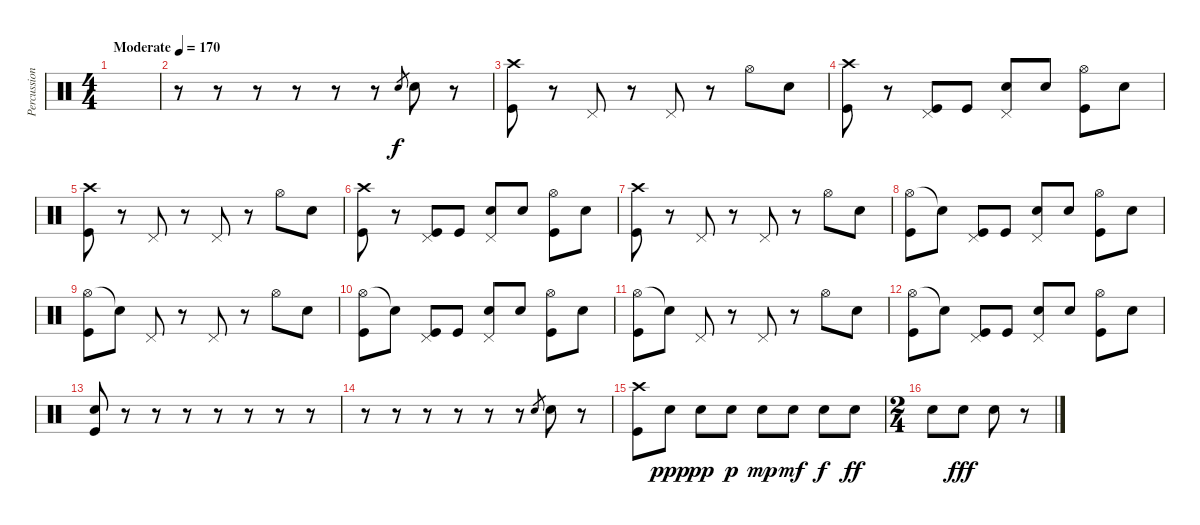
\track ("Percussion" "Percussion") {instrument percussion}
\staff {score}
\articulation defaults
\ts (4 4)
\tempo (170 "Moderate")
\clef neutral
\ks c
|
r.8 r.8 r.8 r.8 r.8 r.8 "Snare (hit) 2".8{gr} "Snare (hit) 2".8 r.8 |
("Crash high (hit)" "Kick (hit)").8 r.8 "Pedal Hi-Hat (hit)".8 r.8 "Pedal Hi-Hat (hit)".8 r.8 "Hi-Hat (open)".8 "Snare (hit) 2".8 |
("Crash high (hit)" "Kick (hit)").8 r.8 ("Pedal Hi-Hat (hit)" "Kick (hit)").8 "Kick (hit)".8 ("Snare (hit) 2" "Pedal Hi-Hat (hit)").8 "Snare (hit) 2".8 ("Hi-Hat (open)" "Kick (hit)").8 "Snare (hit) 2".8 |
("Crash high (hit)" "Kick (hit)").8 r.8 "Pedal Hi-Hat (hit)".8 r.8 "Pedal Hi-Hat (hit)".8 r.8 "Hi-Hat (open)".8 "Snare (hit) 2".8 |
("Crash high (hit)" "Kick (hit)").8 r.8 ("Pedal Hi-Hat (hit)" "Kick (hit)").8 "Kick (hit)".8 ("Snare (hit) 2" "Pedal Hi-Hat (hit)").8 "Snare (hit) 2".8 ("Hi-Hat (open)" "Kick (hit)").8 "Snare (hit) 2".8 |
("Crash high (hit)" "Kick (hit)").8 r.8 "Pedal Hi-Hat (hit)".8 r.8 "Pedal Hi-Hat (hit)".8 r.8 "Hi-Hat (open)".8 "Snare (hit) 2".8 |
("Hi-Hat (open)" "Kick (hit)").8 "Snare (hit)"{t}.8 ("Pedal Hi-Hat (hit)" "Kick (hit)").8 "Kick (hit)".8 ("Snare (hit) 2" "Pedal Hi-Hat (hit)").8 "Snare (hit) 2".8 ("Hi-Hat (open)" "Kick (hit)").8 "Snare (hit) 2".8 |
("Hi-Hat (open)" "Kick (hit)").8 "Snare (hit)"{t}.8 "Pedal Hi-Hat (hit)".8 r.8 "Pedal Hi-Hat (hit)".8 r.8 "Hi-Hat (open)".8 "Snare (hit) 2".8 |
("Hi-Hat (open)" "Kick (hit)").8 "Snare (hit)"{t}.8 ("Pedal Hi-Hat (hit)" "Kick (hit)").8 "Kick (hit)".8 ("Snare (hit) 2" "Pedal Hi-Hat (hit)").8 "Snare (hit) 2".8 ("Hi-Hat (open)" "Kick (hit)").8 "Snare (hit) 2".8 |
("Hi-Hat (open)" "Kick (hit)").8 "Snare (hit)"{t}.8 "Pedal Hi-Hat (hit)".8 r.8 "Pedal Hi-Hat (hit)".8 r.8 "Hi-Hat (open)".8 "Snare (hit) 2".8 |
("Hi-Hat (open)" "Kick (hit)").8 "Snare (hit)"{t}.8 ("Pedal Hi-Hat (hit)" "Kick (hit)").8 "Kick (hit)".8 ("Snare (hit) 2" "Pedal Hi-Hat (hit)").8 "Snare (hit) 2".8 ("Hi-Hat (open)" "Kick (hit)").8 "Snare (hit) 2".8 |
("Snare (hit) 2" "Kick (hit)").8 r.8 r.8 r.8 r.8 r.8 r.8 r.8 |
r.8 r.8 r.8 r.8 r.8 r.8 "Snare (hit) 2".8{gr} "Snare (hit) 2".8 r.8 |
("Crash high (hit)" "Kick (hit)").8 "Snare (hit) 2".8{dy ppp} "Snare (hit) 2".8{dy pp} "Snare (hit) 2".8{dy p} "Snare (hit) 2".8{dy mp} "Snare (hit) 2".8{dy mf} "Snare (hit) 2".8{dy f} "Snare (hit) 2".8{dy ff} |
\ts (2 4)
"Snare (hit) 2".8 "Snare (hit) 2".8{dy fff} "Snare (hit) 2".8 r.8
